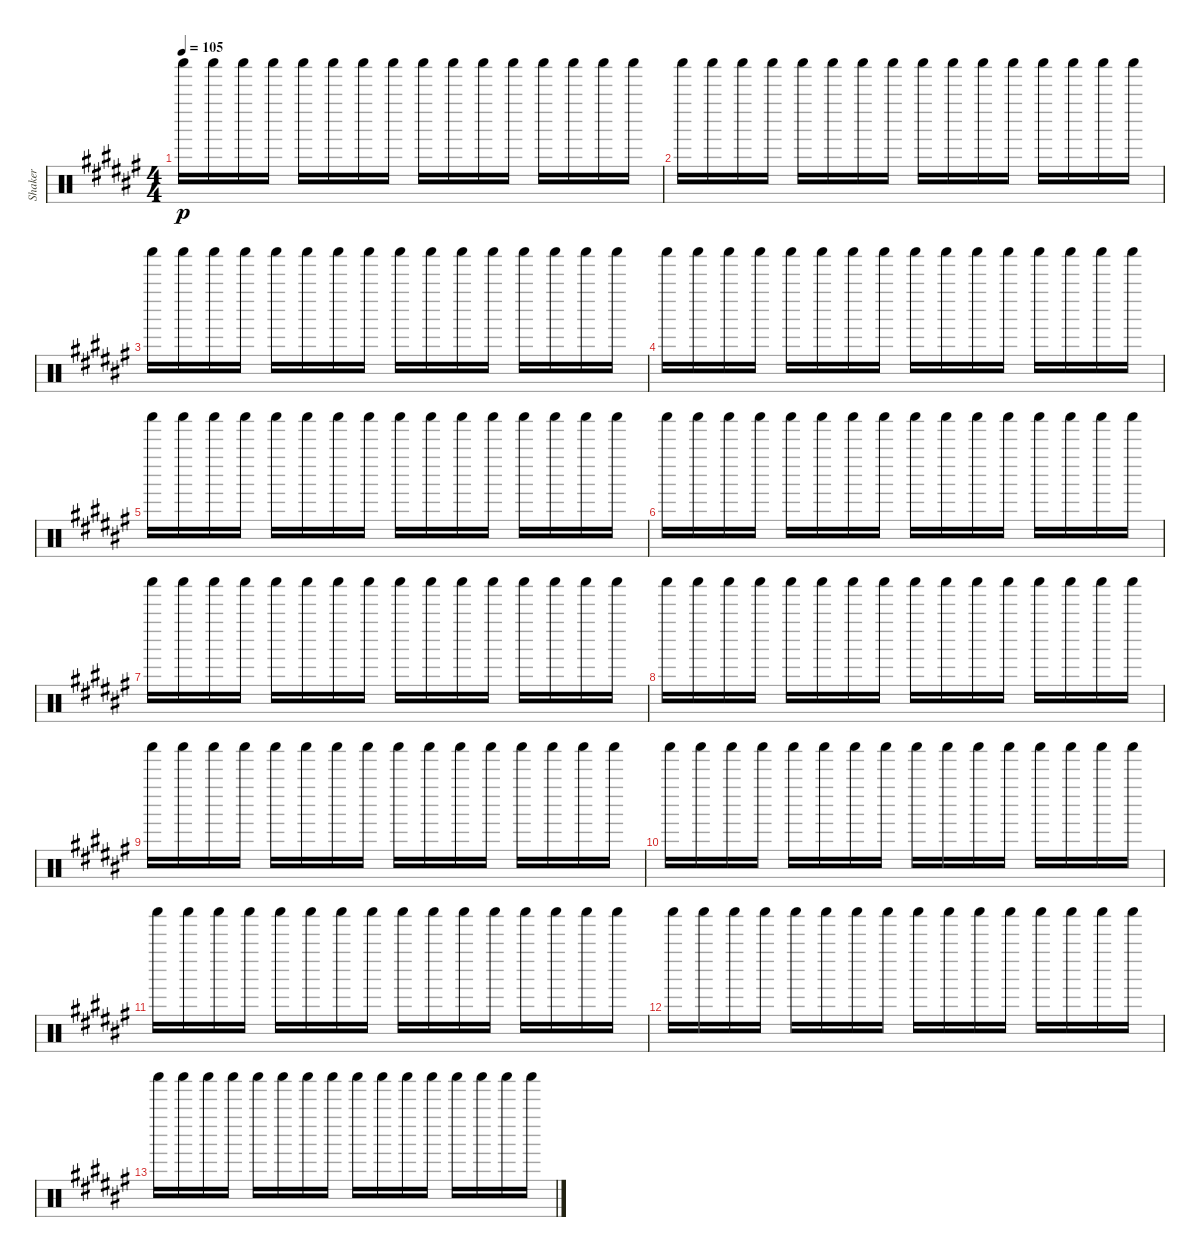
\track ("Shaker" "Shaker") {instrument percussion}
\staff {score}
\articulation defaults
\ts (4 4)
\tempo 105
\clef neutral
\ks d#minor "Shaker (hit)".16{dy p} "Shaker (hit)".16 "Shaker (hit)".16 "Shaker (hit)".16 "Shaker (hit)".16 "Shaker (hit)".16 "Shaker (hit)".16 "Shaker (hit)".16 "Shaker (hit)".16 "Shaker (hit)".16 "Shaker (hit)".16 "Shaker (hit)".16 "Shaker (hit)".16 "Shaker (hit)".16 "Shaker (hit)".16 "Shaker (hit)".16
|
"Shaker (hit)".16 "Shaker (hit)".16 "Shaker (hit)".16 "Shaker (hit)".16 "Shaker (hit)".16 "Shaker (hit)".16 "Shaker (hit)".16 "Shaker (hit)".16 "Shaker (hit)".16 "Shaker (hit)".16 "Shaker (hit)".16 "Shaker (hit)".16 "Shaker (hit)".16 "Shaker (hit)".16 "Shaker (hit)".16 "Shaker (hit)".16 |
"Shaker (hit)".16 "Shaker (hit)".16 "Shaker (hit)".16 "Shaker (hit)".16 "Shaker (hit)".16 "Shaker (hit)".16 "Shaker (hit)".16 "Shaker (hit)".16 "Shaker (hit)".16 "Shaker (hit)".16 "Shaker (hit)".16 "Shaker (hit)".16 "Shaker (hit)".16 "Shaker (hit)".16 "Shaker (hit)".16 "Shaker (hit)".16 |
"Shaker (hit)".16 "Shaker (hit)".16 "Shaker (hit)".16 "Shaker (hit)".16 "Shaker (hit)".16 "Shaker (hit)".16 "Shaker (hit)".16 "Shaker (hit)".16 "Shaker (hit)".16 "Shaker (hit)".16 "Shaker (hit)".16 "Shaker (hit)".16 "Shaker (hit)".16 "Shaker (hit)".16 "Shaker (hit)".16 "Shaker (hit)".16 |
"Shaker (hit)".16 "Shaker (hit)".16 "Shaker (hit)".16 "Shaker (hit)".16 "Shaker (hit)".16 "Shaker (hit)".16 "Shaker (hit)".16 "Shaker (hit)".16 "Shaker (hit)".16 "Shaker (hit)".16 "Shaker (hit)".16 "Shaker (hit)".16 "Shaker (hit)".16 "Shaker (hit)".16 "Shaker (hit)".16 "Shaker (hit)".16 |
"Shaker (hit)".16 "Shaker (hit)".16 "Shaker (hit)".16 "Shaker (hit)".16 "Shaker (hit)".16 "Shaker (hit)".16 "Shaker (hit)".16 "Shaker (hit)".16 "Shaker (hit)".16 "Shaker (hit)".16 "Shaker (hit)".16 "Shaker (hit)".16 "Shaker (hit)".16 "Shaker (hit)".16 "Shaker (hit)".16 "Shaker (hit)".16 |
"Shaker (hit)".16 "Shaker (hit)".16 "Shaker (hit)".16 "Shaker (hit)".16 "Shaker (hit)".16 "Shaker (hit)".16 "Shaker (hit)".16 "Shaker (hit)".16 "Shaker (hit)".16 "Shaker (hit)".16 "Shaker (hit)".16 "Shaker (hit)".16 "Shaker (hit)".16 "Shaker (hit)".16 "Shaker (hit)".16 "Shaker (hit)".16 |
"Shaker (hit)".16 "Shaker (hit)".16 "Shaker (hit)".16 "Shaker (hit)".16 "Shaker (hit)".16 "Shaker (hit)".16 "Shaker (hit)".16 "Shaker (hit)".16 "Shaker (hit)".16 "Shaker (hit)".16 "Shaker (hit)".16 "Shaker (hit)".16 "Shaker (hit)".16 "Shaker (hit)".16 "Shaker (hit)".16 "Shaker (hit)".16 |
"Shaker (hit)".16 "Shaker (hit)".16 "Shaker (hit)".16 "Shaker (hit)".16 "Shaker (hit)".16 "Shaker (hit)".16 "Shaker (hit)".16 "Shaker (hit)".16 "Shaker (hit)".16 "Shaker (hit)".16 "Shaker (hit)".16 "Shaker (hit)".16 "Shaker (hit)".16 "Shaker (hit)".16 "Shaker (hit)".16 "Shaker (hit)".16 |
"Shaker (hit)".16 "Shaker (hit)".16 "Shaker (hit)".16 "Shaker (hit)".16 "Shaker (hit)".16 "Shaker (hit)".16 "Shaker (hit)".16 "Shaker (hit)".16 "Shaker (hit)".16 "Shaker (hit)".16 "Shaker (hit)".16 "Shaker (hit)".16 "Shaker (hit)".16 "Shaker (hit)".16 "Shaker (hit)".16 "Shaker (hit)".16 |
"Shaker (hit)".16 "Shaker (hit)".16 "Shaker (hit)".16 "Shaker (hit)".16 "Shaker (hit)".16 "Shaker (hit)".16 "Shaker (hit)".16 "Shaker (hit)".16 "Shaker (hit)".16 "Shaker (hit)".16 "Shaker (hit)".16 "Shaker (hit)".16 "Shaker (hit)".16 "Shaker (hit)".16 "Shaker (hit)".16 "Shaker (hit)".16 |
"Shaker (hit)".16 "Shaker (hit)".16 "Shaker (hit)".16 "Shaker (hit)".16 "Shaker (hit)".16 "Shaker (hit)".16 "Shaker (hit)".16 "Shaker (hit)".16 "Shaker (hit)".16 "Shaker (hit)".16 "Shaker (hit)".16 "Shaker (hit)".16 "Shaker (hit)".16 "Shaker (hit)".16 "Shaker (hit)".16 "Shaker (hit)".16 |
"Shaker (hit)".16 "Shaker (hit)".16 "Shaker (hit)".16 "Shaker (hit)".16 "Shaker (hit)".16 "Shaker (hit)".16 "Shaker (hit)".16 "Shaker (hit)".16 "Shaker (hit)".16 "Shaker (hit)".16 "Shaker (hit)".16 "Shaker (hit)".16 "Shaker (hit)".16 "Shaker (hit)".16 "Shaker (hit)".16 "Shaker (hit)".16
